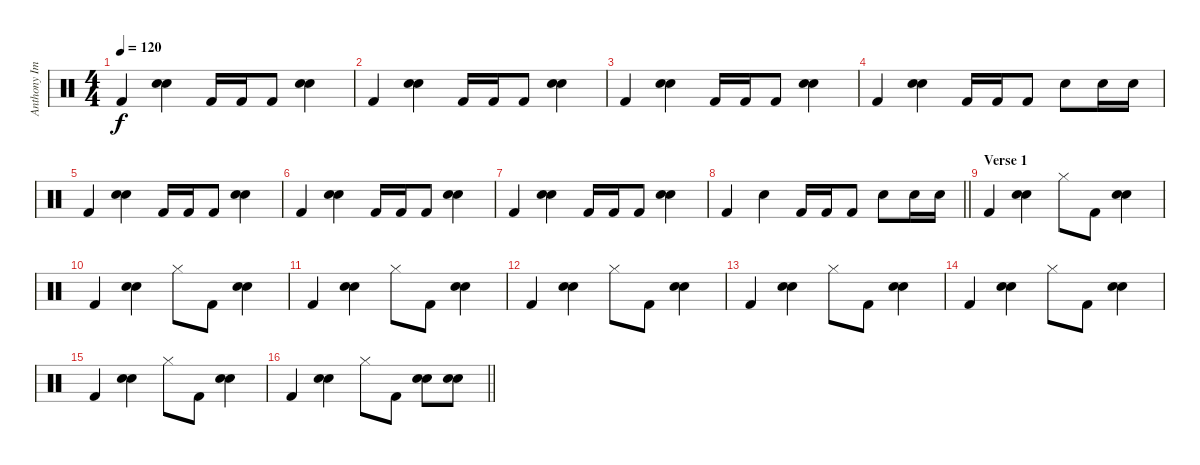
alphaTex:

\track ("Anthony Improgo (Percussion)" "Anthony Im") {instrument percussion}
\staff {score}
\articulation defaults
\ts (4 4)
\tempo 120
\clef neutral
\ks c "Kick (hit) 2".4{dy f}
("Snare (hit) 2" "Snare (hit) 2").4 "Kick (hit) 2".16 "Kick (hit) 2".16 "Kick (hit) 2".8 ("Snare (hit) 2" "Snare (hit) 2").4 |
"Kick (hit) 2".4 ("Snare (hit) 2" "Snare (hit) 2").4 "Kick (hit) 2".16 "Kick (hit) 2".16 "Kick (hit) 2".8 ("Snare (hit) 2" "Snare (hit) 2").4 |
"Kick (hit) 2".4 ("Snare (hit) 2" "Snare (hit) 2").4 "Kick (hit) 2".16 "Kick (hit) 2".16 "Kick (hit) 2".8 ("Snare (hit) 2" "Snare (hit) 2").4 |
"Kick (hit) 2".4 ("Snare (hit) 2" "Snare (hit) 2").4 "Kick (hit) 2".16 "Kick (hit) 2".16 "Kick (hit) 2".8 "Snare (hit) 2".8 "Snare (hit) 2".16 "Snare (hit) 2".16 |
"Kick (hit) 2".4 ("Snare (hit) 2" "Snare (hit) 2").4 "Kick (hit) 2".16 "Kick (hit) 2".16 "Kick (hit) 2".8 ("Snare (hit) 2" "Snare (hit) 2").4 |
"Kick (hit) 2".4 ("Snare (hit) 2" "Snare (hit) 2").4 "Kick (hit) 2".16 "Kick (hit) 2".16 "Kick (hit) 2".8 ("Snare (hit) 2" "Snare (hit) 2").4 |
"Kick (hit) 2".4 ("Snare (hit) 2" "Snare (hit) 2").4 "Kick (hit) 2".16 "Kick (hit) 2".16 "Kick (hit) 2".8 ("Snare (hit) 2" "Snare (hit) 2").4 |
\barLineRight lightlight "Kick (hit) 2".4 "Snare (hit) 2".4 "Kick (hit) 2".16 "Kick (hit) 2".16 "Kick (hit) 2".8 "Snare (hit) 2".8 "Snare (hit) 2".16 "Snare (hit) 2".16
|
\section ("" "Verse 1")
"Kick (hit) 2".4 ("Snare (hit) 2" "Snare (hit) 2").4 "Hi-Hat (closed)".8 "Kick (hit) 2".8 ("Snare (hit) 2" "Snare (hit) 2").4 |
"Kick (hit) 2".4 ("Snare (hit) 2" "Snare (hit) 2").4 "Hi-Hat (closed)".8 "Kick (hit) 2".8 ("Snare (hit) 2" "Snare (hit) 2").4 |
"Kick (hit) 2".4 ("Snare (hit) 2" "Snare (hit) 2").4 "Hi-Hat (closed)".8 "Kick (hit) 2".8 ("Snare (hit) 2" "Snare (hit) 2").4 |
"Kick (hit) 2".4 ("Snare (hit) 2" "Snare (hit) 2").4 "Hi-Hat (closed)".8 "Kick (hit) 2".8 ("Snare (hit) 2" "Snare (hit) 2").4 |
"Kick (hit) 2".4 ("Snare (hit) 2" "Snare (hit) 2").4 "Hi-Hat (closed)".8 "Kick (hit) 2".8 ("Snare (hit) 2" "Snare (hit) 2").4 |
"Kick (hit) 2".4 ("Snare (hit) 2" "Snare (hit) 2").4 "Hi-Hat (closed)".8 "Kick (hit) 2".8 ("Snare (hit) 2" "Snare (hit) 2").4 |
"Kick (hit) 2".4 ("Snare (hit) 2" "Snare (hit) 2").4 "Hi-Hat (closed)".8 "Kick (hit) 2".8 ("Snare (hit) 2" "Snare (hit) 2").4 |
\barLineRight lightlight "Kick (hit) 2".4
("Snare (hit) 2" "Snare (hit) 2").4 "Hi-Hat (closed)".8 "Kick (hit) 2".8 ("Snare (hit) 2" "Snare (hit) 2").8 ("Snare (hit) 2" "Snare (hit) 2").8
